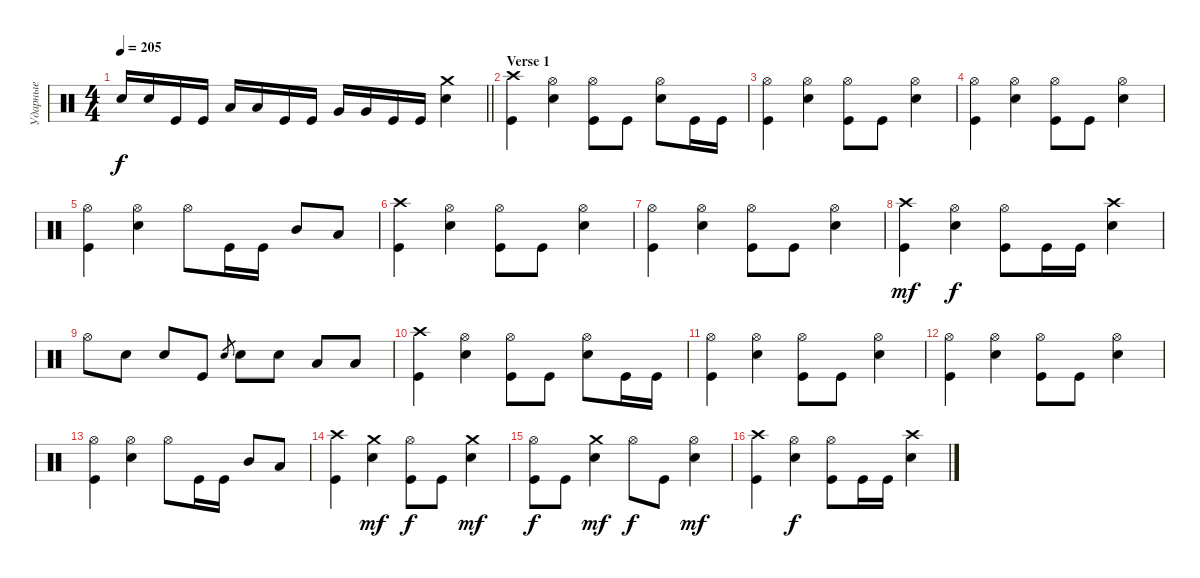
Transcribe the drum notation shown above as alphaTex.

\track ("Ударные" "Ударные") {instrument percussion}
\staff {score}
\articulation defaults
\ts (4 4)
\tempo 205
\clef neutral
\barLineRight lightlight
\ks aminor "Snare (hit) 2".16{dy f} "Snare (hit) 2".16 "Kick (hit)".16 "Kick (hit)".16 "Low Tom (hit)".16 "Low Tom (hit)".16 "Kick (hit)".16 "Kick (hit)".16 "Very Low Tom (hit)".16 "Very Low Tom (hit)".16 "Kick (hit)".16 "Kick (hit)".16
("Snare (hit) 2" "Crash medium (hit)").4 |
\section ("" "Verse 1")
("Kick (hit)" "Crash high (hit)").4 ("Snare (hit) 2" "Hi-Hat (open)").4 ("Kick (hit)" "Hi-Hat (open)").8 "Kick (hit)".8 ("Snare (hit) 2" "Hi-Hat (open)").8 "Kick (hit)".16 "Kick (hit)".16 |
("Kick (hit)" "Hi-Hat (open)").4 ("Snare (hit) 2" "Hi-Hat (open)").4 ("Kick (hit)" "Hi-Hat (open)").8 "Kick (hit)".8 ("Snare (hit) 2" "Hi-Hat (open)").4 |
("Kick (hit)" "Hi-Hat (open)").4 ("Snare (hit) 2" "Hi-Hat (open)").4 ("Kick (hit)" "Hi-Hat (open)").8 "Kick (hit)".8 ("Snare (hit) 2" "Hi-Hat (open)").4 |
("Kick (hit)" "Hi-Hat (open)").4 ("Snare (hit) 2" "Hi-Hat (open)").4 "Hi-Hat (open)".8 "Kick (hit)".16 "Kick (hit)".16 "Mid Tom (hit)".8 "Low Tom (hit)".8 |
("Kick (hit)" "Crash high (hit)").4 ("Snare (hit) 2" "Hi-Hat (open)").4 ("Kick (hit)" "Hi-Hat (open)").8 "Kick (hit)".8 ("Snare (hit) 2" "Hi-Hat (open)").4 |
("Kick (hit)" "Hi-Hat (open)").4 ("Snare (hit) 2" "Hi-Hat (open)").4 ("Kick (hit)" "Hi-Hat (open)").8 "Kick (hit)".8 ("Snare (hit) 2" "Hi-Hat (open)").4 |
("Kick (hit)" "Crash high (hit)").4{dy mf} ("Snare (hit) 2" "Hi-Hat (open)").4{dy f} ("Kick (hit)" "Hi-Hat (open)").8 "Kick (hit)".16 "Kick (hit)".16 ("Snare (hit) 2" "Crash high (hit)").4 |
"Hi-Hat (open)".8 "Snare (hit) 2".8 "Snare (hit) 2".8 "Kick (hit)".8 "Snare (hit) 2".8{gr} "Snare (hit) 2".8 "Snare (hit) 2".8 "Low Tom (hit)".8 "Low Tom (hit)".8 |
("Kick (hit)" "Crash high (hit)").4 ("Snare (hit) 2" "Hi-Hat (open)").4 ("Kick (hit)" "Hi-Hat (open)").8 "Kick (hit)".8 ("Snare (hit) 2" "Hi-Hat (open)").8 "Kick (hit)".16 "Kick (hit)".16 |
("Kick (hit)" "Hi-Hat (open)").4 ("Snare (hit) 2" "Hi-Hat (open)").4 ("Kick (hit)" "Hi-Hat (open)").8 "Kick (hit)".8 ("Snare (hit) 2" "Hi-Hat (open)").4 |
("Kick (hit)" "Hi-Hat (open)").4 ("Snare (hit) 2" "Hi-Hat (open)").4 ("Kick (hit)" "Hi-Hat (open)").8 "Kick (hit)".8 ("Snare (hit) 2" "Hi-Hat (open)").4 |
("Kick (hit)" "Hi-Hat (open)").4 ("Snare (hit) 2" "Hi-Hat (open)").4 "Hi-Hat (open)".8 "Kick (hit)".16 "Kick (hit)".16 "Mid Tom (hit)".8 "Low Tom (hit)".8 |
("Kick (hit)" "Crash high (hit)").4 ("Snare (hit) 2" "Crash medium (hit)").4{dy mf} ("Kick (hit)" "Hi-Hat (open)").8{dy f} "Kick (hit)".8 ("Snare (hit) 2" "Crash medium (hit)").4{dy mf} |
("Kick (hit)" "Hi-Hat (open)").8{dy f} "Kick (hit)".8 ("Snare (hit) 2" "Crash medium (hit)").4{dy mf} "Hi-Hat (open)".8{dy f} "Kick (hit)".8 ("Snare (hit) 2" "Hi-Hat (open)").4{dy mf} |
("Kick (hit)" "Crash high (hit)").4 ("Snare (hit) 2" "Hi-Hat (open)").4{dy f} ("Kick (hit)" "Hi-Hat (open)").8 "Kick (hit)".16 "Kick (hit)".16 ("Snare (hit) 2" "Crash high (hit)").4
